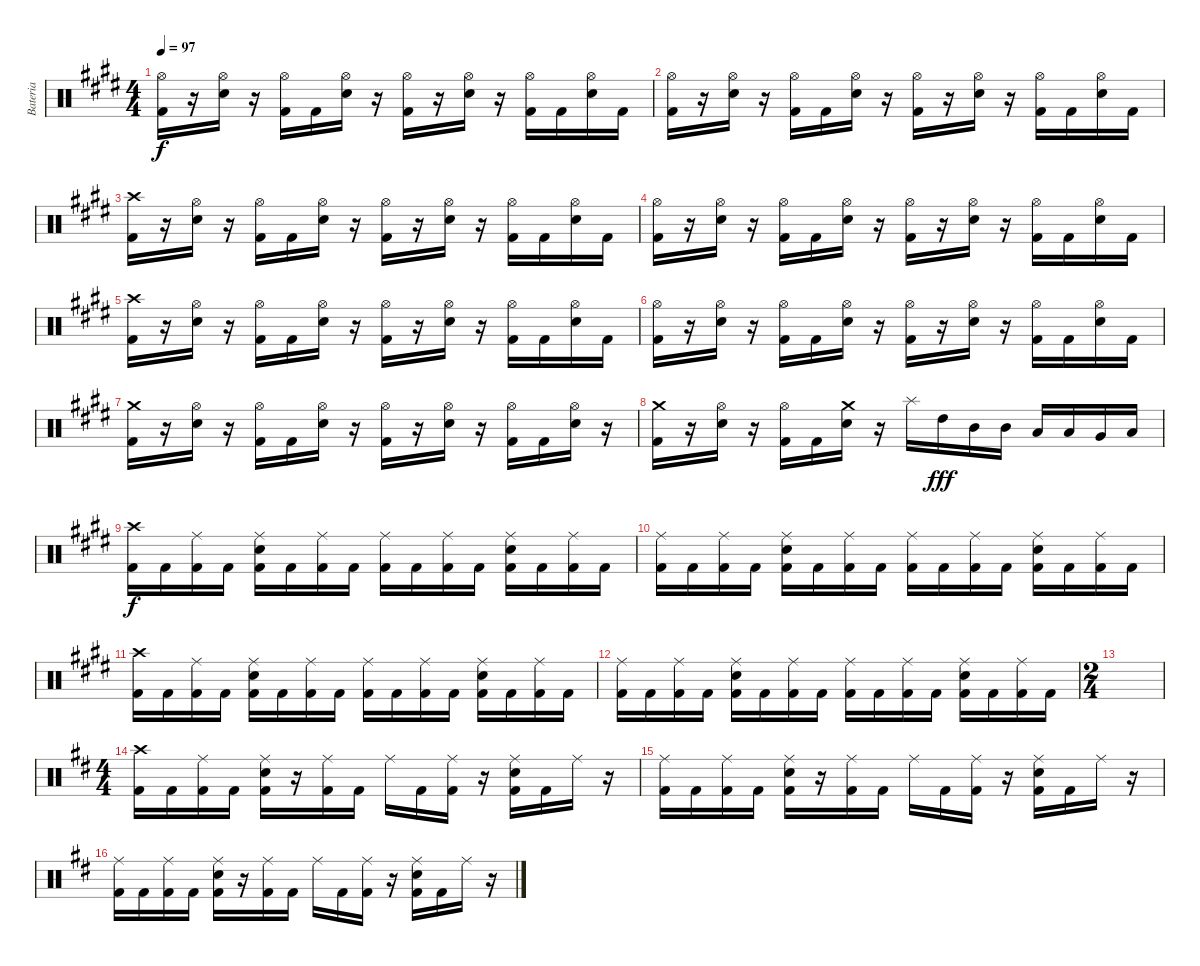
\track ("Bateria" "Bateria") {instrument percussion}
\staff {score}
\articulation defaults
\ts (4 4)
\tempo 97
\clef neutral
\ks e
("Hi-Hat (open)" "Kick (hit) 2").16{dy f} r.16 ("Hi-Hat (open)" "Electric Snare (hit)").16 r.16 ("Hi-Hat (open)" "Kick (hit) 2").16 "Kick (hit) 2".16 ("Hi-Hat (open)" "Electric Snare (hit)").16 r.16 ("Hi-Hat (open)" "Kick (hit) 2").16 r.16 ("Hi-Hat (open)" "Electric Snare (hit)").16 r.16 ("Hi-Hat (open)" "Kick (hit) 2").16 "Kick (hit) 2".16 ("Hi-Hat (open)" "Electric Snare (hit)").16 "Kick (hit) 2".16 |
("Hi-Hat (open)" "Kick (hit) 2").16 r.16 ("Hi-Hat (open)" "Electric Snare (hit)").16 r.16 ("Hi-Hat (open)" "Kick (hit) 2").16 "Kick (hit) 2".16 ("Hi-Hat (open)" "Electric Snare (hit)").16 r.16 ("Hi-Hat (open)" "Kick (hit) 2").16 r.16 ("Hi-Hat (open)" "Electric Snare (hit)").16 r.16 ("Hi-Hat (open)" "Kick (hit) 2").16 "Kick (hit) 2".16 ("Hi-Hat (open)" "Electric Snare (hit)").16 "Kick (hit) 2".16 |
("Crash high (hit)" "Kick (hit) 2").16 r.16 ("Hi-Hat (open)" "Electric Snare (hit)").16 r.16 ("Hi-Hat (open)" "Kick (hit) 2").16 "Kick (hit) 2".16 ("Hi-Hat (open)" "Electric Snare (hit)").16 r.16 ("Hi-Hat (open)" "Kick (hit) 2").16 r.16 ("Hi-Hat (open)" "Electric Snare (hit)").16 r.16 ("Hi-Hat (open)" "Kick (hit) 2").16 "Kick (hit) 2".16 ("Hi-Hat (open)" "Electric Snare (hit)").16 "Kick (hit) 2".16 |
("Hi-Hat (open)" "Kick (hit) 2").16 r.16 ("Hi-Hat (open)" "Electric Snare (hit)").16 r.16 ("Hi-Hat (open)" "Kick (hit) 2").16 "Kick (hit) 2".16 ("Hi-Hat (open)" "Electric Snare (hit)").16 r.16 ("Hi-Hat (open)" "Kick (hit) 2").16 r.16 ("Hi-Hat (open)" "Electric Snare (hit)").16 r.16 ("Hi-Hat (open)" "Kick (hit) 2").16 "Kick (hit) 2".16 ("Hi-Hat (open)" "Electric Snare (hit)").16 "Kick (hit) 2".16 |
("Crash high (hit)" "Kick (hit) 2").16 r.16 ("Hi-Hat (open)" "Electric Snare (hit)").16 r.16 ("Hi-Hat (open)" "Kick (hit) 2").16 "Kick (hit) 2".16 ("Hi-Hat (open)" "Electric Snare (hit)").16 r.16 ("Hi-Hat (open)" "Kick (hit) 2").16 r.16 ("Hi-Hat (open)" "Electric Snare (hit)").16 r.16 ("Hi-Hat (open)" "Kick (hit) 2").16 "Kick (hit) 2".16 ("Hi-Hat (open)" "Electric Snare (hit)").16 "Kick (hit) 2".16 |
("Hi-Hat (open)" "Kick (hit) 2").16 r.16 ("Hi-Hat (open)" "Electric Snare (hit)").16 r.16 ("Hi-Hat (open)" "Kick (hit) 2").16 "Kick (hit) 2".16 ("Hi-Hat (open)" "Electric Snare (hit)").16 r.16 ("Hi-Hat (open)" "Kick (hit) 2").16 r.16 ("Hi-Hat (open)" "Electric Snare (hit)").16 r.16 ("Hi-Hat (open)" "Kick (hit) 2").16 "Kick (hit) 2".16 ("Hi-Hat (open)" "Electric Snare (hit)").16 "Kick (hit) 2".16 |
("Crash medium (hit)" "Kick (hit) 2").16 r.16 ("Hi-Hat (open)" "Electric Snare (hit)").16 r.16 ("Hi-Hat (open)" "Kick (hit) 2").16 "Kick (hit) 2".16 ("Hi-Hat (open)" "Electric Snare (hit)").16 r.16 ("Hi-Hat (open)" "Kick (hit) 2").16 r.16 ("Hi-Hat (open)" "Electric Snare (hit)").16 r.16 ("Hi-Hat (open)" "Kick (hit) 2").16 "Kick (hit) 2".16 ("Hi-Hat (open)" "Electric Snare (hit)").16 r.16 |
("Crash medium (hit)" "Kick (hit) 2").16 r.16 ("Hi-Hat (open)" "Electric Snare (hit)").16 r.16 ("Hi-Hat (open)" "Kick (hit) 2").16 "Kick (hit) 2".16 ("Crash medium (hit)" "Electric Snare (hit)").16 r.16 "Splash (hit)".16 "High Tom (hit)".16{dy fff} "Mid Tom (hit)".16 "Mid Tom (hit)".16 "Low Tom (hit)".16 "Low Tom (hit)".16 "Very Low Tom (hit)".16 "Low Floor Tom (hit)".16 |
("Crash high (hit)" "Kick (hit) 2").16{dy f} "Kick (hit) 2".16 ("Ride (middle)" "Kick (hit) 2").16 "Kick (hit) 2".16 ("Ride (middle)" "Kick (hit) 2" "Electric Snare (hit)").16 "Kick (hit) 2".16 ("Ride (middle)" "Kick (hit) 2").16 "Kick (hit) 2".16 ("Ride (middle)" "Kick (hit) 2").16 "Kick (hit) 2".16 ("Ride (middle)" "Kick (hit) 2").16 "Kick (hit) 2".16 ("Ride (middle)" "Kick (hit) 2" "Electric Snare (hit)").16 "Kick (hit) 2".16 ("Ride (middle)" "Kick (hit) 2").16 "Kick (hit) 2".16 |
("Ride (middle)" "Kick (hit) 2").16 "Kick (hit) 2".16 ("Ride (middle)" "Kick (hit) 2").16 "Kick (hit) 2".16 ("Ride (middle)" "Kick (hit) 2" "Electric Snare (hit)").16 "Kick (hit) 2".16 ("Ride (middle)" "Kick (hit) 2").16 "Kick (hit) 2".16 ("Ride (middle)" "Kick (hit) 2").16 "Kick (hit) 2".16 ("Ride (middle)" "Kick (hit) 2").16 "Kick (hit) 2".16 ("Ride (middle)" "Kick (hit) 2" "Electric Snare (hit)").16 "Kick (hit) 2".16 ("Ride (middle)" "Kick (hit) 2").16 "Kick (hit) 2".16 |
("Crash high (hit)" "Kick (hit) 2").16 "Kick (hit) 2".16 ("Ride (middle)" "Kick (hit) 2").16 "Kick (hit) 2".16 ("Ride (middle)" "Kick (hit) 2" "Electric Snare (hit)").16 "Kick (hit) 2".16 ("Ride (middle)" "Kick (hit) 2").16 "Kick (hit) 2".16 ("Ride (middle)" "Kick (hit) 2").16 "Kick (hit) 2".16 ("Ride (middle)" "Kick (hit) 2").16 "Kick (hit) 2".16 ("Ride (middle)" "Kick (hit) 2" "Electric Snare (hit)").16 "Kick (hit) 2".16 ("Ride (middle)" "Kick (hit) 2").16 "Kick (hit) 2".16 |
("Ride (middle)" "Kick (hit) 2").16 "Kick (hit) 2".16 ("Ride (middle)" "Kick (hit) 2").16 "Kick (hit) 2".16 ("Ride (middle)" "Kick (hit) 2" "Electric Snare (hit)").16 "Kick (hit) 2".16 ("Ride (middle)" "Kick (hit) 2").16 "Kick (hit) 2".16 ("Ride (middle)" "Kick (hit) 2").16 "Kick (hit) 2".16 ("Ride (middle)" "Kick (hit) 2").16 "Kick (hit) 2".16 ("Ride (middle)" "Kick (hit) 2" "Electric Snare (hit)").16 "Kick (hit) 2".16 ("Ride (middle)" "Kick (hit) 2").16 "Kick (hit) 2".16 |
\ts (2 4)
|
\ts (4 4)
\ks d
("Kick (hit) 2" "Crash high (hit)").16 "Kick (hit) 2".16 ("Kick (hit) 2" "Ride (middle)").16 "Kick (hit) 2".16 ("Kick (hit) 2" "Electric Snare (hit)" "Ride (middle)").16 r.16 ("Kick (hit) 2" "Ride (middle)").16 "Kick (hit) 2".16 "Ride (middle)".16 "Kick (hit) 2".16 ("Kick (hit) 2" "Ride (middle)").16 r.16 ("Kick (hit) 2" "Electric Snare (hit)" "Ride (middle)").16 "Kick (hit) 2".16 "Ride (middle)".16 r.16 |
("Kick (hit) 2" "Ride (middle)").16 "Kick (hit) 2".16 ("Kick (hit) 2" "Ride (middle)").16 "Kick (hit) 2".16 ("Kick (hit) 2" "Electric Snare (hit)" "Ride (middle)").16 r.16 ("Kick (hit) 2" "Ride (middle)").16 "Kick (hit) 2".16 "Ride (middle)".16 "Kick (hit) 2".16 ("Kick (hit) 2" "Ride (middle)").16 r.16 ("Kick (hit) 2" "Electric Snare (hit)" "Ride (middle)").16 "Kick (hit) 2".16 "Ride (middle)".16 r.16 |
("Kick (hit) 2" "Ride (middle)").16 "Kick (hit) 2".16 ("Kick (hit) 2" "Ride (middle)").16 "Kick (hit) 2".16 ("Kick (hit) 2" "Electric Snare (hit)" "Ride (middle)").16 r.16 ("Kick (hit) 2" "Ride (middle)").16 "Kick (hit) 2".16 "Ride (middle)".16 "Kick (hit) 2".16 ("Kick (hit) 2" "Ride (middle)").16 r.16 ("Kick (hit) 2" "Electric Snare (hit)" "Ride (middle)").16 "Kick (hit) 2".16 "Ride (middle)".16 r.16
